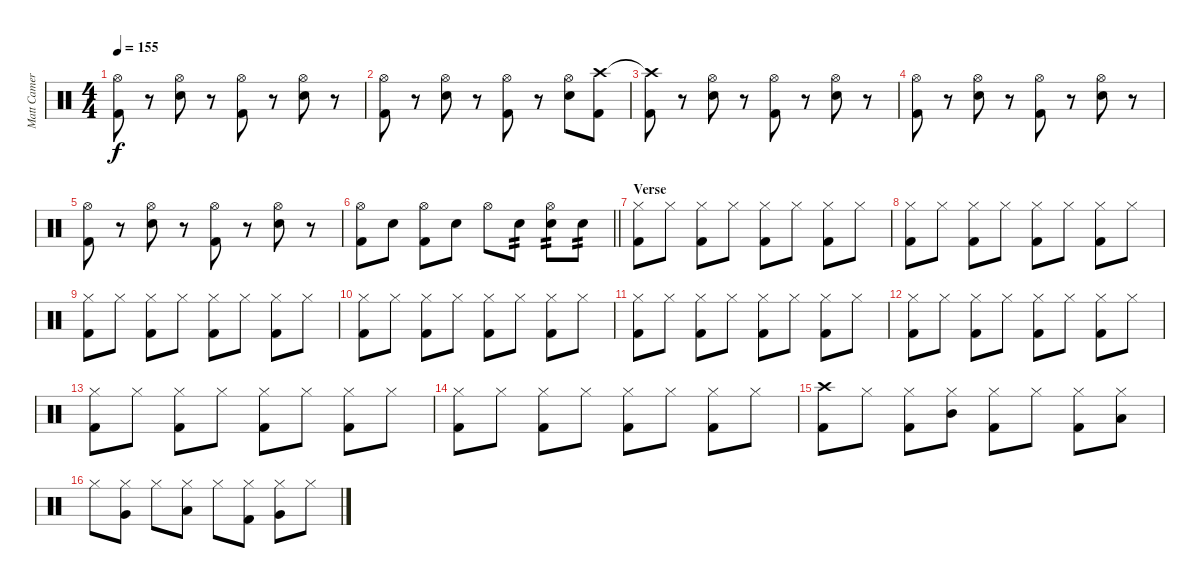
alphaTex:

\track ("Matt Cameron" "Matt Camer") {instrument percussion}
\staff {score}
\articulation defaults
\ts (4 4)
\tempo 155
\clef neutral
\ks c
("Hi-Hat (open)" "Kick (hit) 2").8{dy f} r.8 ("Hi-Hat (open)" "Snare (hit) 2").8 r.8 ("Hi-Hat (open)" "Kick (hit) 2").8 r.8 ("Hi-Hat (open)" "Snare (hit) 2").8 r.8 |
("Hi-Hat (open)" "Kick (hit) 2").8 r.8 ("Hi-Hat (open)" "Snare (hit) 2").8 r.8 ("Hi-Hat (open)" "Kick (hit) 2").8 r.8 ("Hi-Hat (open)" "Snare (hit) 2").8 ("Crash high (hit)" "Kick (hit) 2").8 |
("Crash high (hit)"{t} "Kick (hit) 2").8 r.8 ("Hi-Hat (open)" "Snare (hit) 2").8 r.8 ("Hi-Hat (open)" "Kick (hit) 2").8 r.8 ("Hi-Hat (open)" "Snare (hit) 2").8 r.8 |
("Hi-Hat (open)" "Kick (hit) 2").8 r.8 ("Hi-Hat (open)" "Snare (hit) 2").8 r.8 ("Hi-Hat (open)" "Kick (hit) 2").8 r.8 ("Hi-Hat (open)" "Snare (hit) 2").8 r.8 |
("Hi-Hat (open)" "Kick (hit) 2").8 r.8 ("Hi-Hat (open)" "Snare (hit) 2").8 r.8 ("Hi-Hat (open)" "Kick (hit) 2").8 r.8 ("Hi-Hat (open)" "Snare (hit) 2").8 r.8 |
\barLineRight lightlight
("Hi-Hat (open)" "Kick (hit) 2").8 "Snare (hit) 2".8 ("Hi-Hat (open)" "Kick (hit) 2").8 "Snare (hit) 2".8 "Hi-Hat (open)".8 "Snare (hit) 2".8{tp 2} ("Hi-Hat (open)" "Snare (hit) 2").8{tp 2} "Snare (hit) 2".8{tp 2} |
\section ("" "Verse")
("Hi-Hat (closed)" "Kick (hit) 2").8 "Hi-Hat (closed)".8 ("Hi-Hat (closed)" "Kick (hit) 2").8 "Hi-Hat (closed)".8 ("Hi-Hat (closed)" "Kick (hit) 2").8 "Hi-Hat (closed)".8 ("Hi-Hat (closed)" "Kick (hit) 2").8 "Hi-Hat (closed)".8 |
("Hi-Hat (closed)" "Kick (hit) 2").8 "Hi-Hat (closed)".8 ("Hi-Hat (closed)" "Kick (hit) 2").8 "Hi-Hat (closed)".8 ("Hi-Hat (closed)" "Kick (hit) 2").8 "Hi-Hat (closed)".8 ("Hi-Hat (closed)" "Kick (hit) 2").8 "Hi-Hat (closed)".8 |
("Hi-Hat (closed)" "Kick (hit) 2").8 "Hi-Hat (closed)".8 ("Hi-Hat (closed)" "Kick (hit) 2").8 "Hi-Hat (closed)".8 ("Hi-Hat (closed)" "Kick (hit) 2").8 "Hi-Hat (closed)".8 ("Hi-Hat (closed)" "Kick (hit) 2").8 "Hi-Hat (closed)".8 |
("Hi-Hat (closed)" "Kick (hit) 2").8 "Hi-Hat (closed)".8 ("Hi-Hat (closed)" "Kick (hit) 2").8 "Hi-Hat (closed)".8 ("Hi-Hat (closed)" "Kick (hit) 2").8 "Hi-Hat (closed)".8 ("Hi-Hat (closed)" "Kick (hit) 2").8 "Hi-Hat (closed)".8 |
("Hi-Hat (closed)" "Kick (hit) 2").8 "Hi-Hat (closed)".8 ("Hi-Hat (closed)" "Kick (hit) 2").8 "Hi-Hat (closed)".8 ("Hi-Hat (closed)" "Kick (hit) 2").8 "Hi-Hat (closed)".8 ("Hi-Hat (closed)" "Kick (hit) 2").8 "Hi-Hat (closed)".8 |
("Hi-Hat (closed)" "Kick (hit) 2").8 "Hi-Hat (closed)".8 ("Hi-Hat (closed)" "Kick (hit) 2").8 "Hi-Hat (closed)".8 ("Hi-Hat (closed)" "Kick (hit) 2").8 "Hi-Hat (closed)".8 ("Hi-Hat (closed)" "Kick (hit) 2").8 "Hi-Hat (closed)".8 |
("Hi-Hat (closed)" "Kick (hit) 2").8 "Hi-Hat (closed)".8 ("Hi-Hat (closed)" "Kick (hit) 2").8 "Hi-Hat (closed)".8 ("Hi-Hat (closed)" "Kick (hit) 2").8 "Hi-Hat (closed)".8 ("Hi-Hat (closed)" "Kick (hit) 2").8 "Hi-Hat (closed)".8 |
("Hi-Hat (closed)" "Kick (hit) 2").8 "Hi-Hat (closed)".8 ("Hi-Hat (closed)" "Kick (hit) 2").8 "Hi-Hat (closed)".8 ("Hi-Hat (closed)" "Kick (hit) 2").8 "Hi-Hat (closed)".8 ("Hi-Hat (closed)" "Kick (hit) 2").8 "Hi-Hat (closed)".8 |
("Crash high (hit)" "Kick (hit) 2").8 "Hi-Hat (closed)".8 ("Hi-Hat (closed)" "Kick (hit) 2").8 ("Hi-Hat (closed)" "Mid Tom (hit)").8 ("Hi-Hat (closed)" "Kick (hit) 2").8 "Hi-Hat (closed)".8 ("Hi-Hat (closed)" "Kick (hit) 2").8 ("Hi-Hat (closed)" "Low Tom (hit)").8 |
"Hi-Hat (closed)".8 ("Hi-Hat (closed)" "Very Low Tom (hit)").8 "Hi-Hat (closed)".8 ("Hi-Hat (closed)" "Low Floor Tom (hit)").8 "Hi-Hat (closed)".8 ("Hi-Hat (closed)" "Kick (hit) 2").8 ("Hi-Hat (closed)" "Very Low Tom (hit)").8 "Hi-Hat (closed)".8
